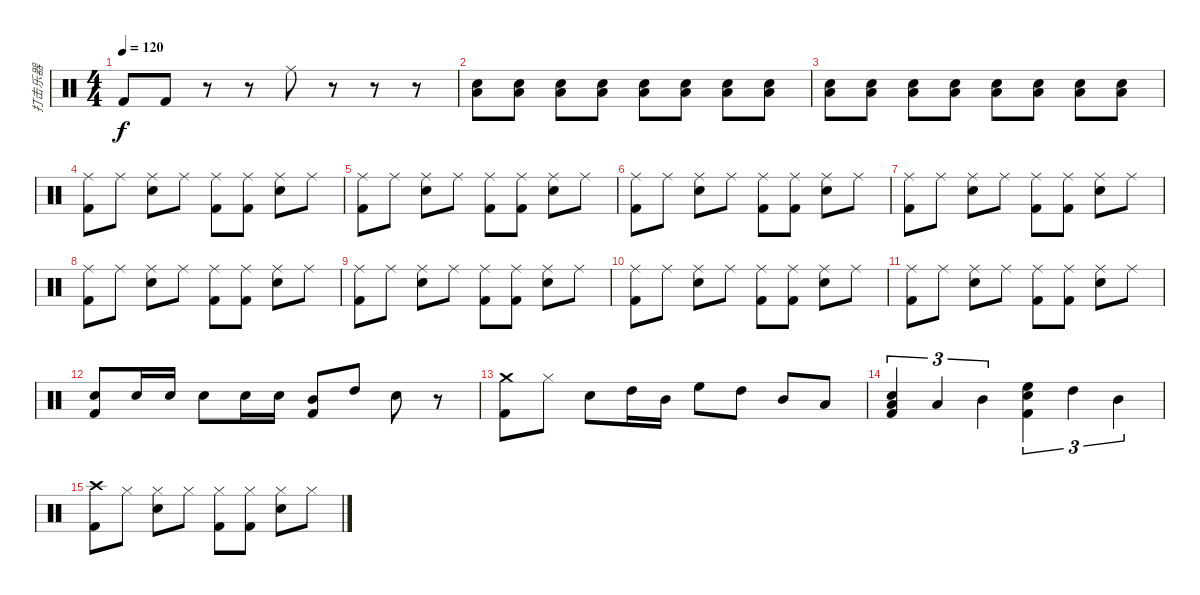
\track ("打击乐器" "打击乐器") {instrument percussion}
\staff {score}
\articulation defaults
\ts (4 4)
\tempo 120
\clef neutral
\ks c "Kick (hit) 2".8{dy f} "Kick (hit) 2".8
r.8 r.8 "Ride (middle)".8 r.8 r.8 r.8 |
("Electric Snare (hit)" "Low Floor Tom (hit)").8 ("Electric Snare (hit)" "Low Floor Tom (hit)").8 ("Electric Snare (hit)" "Low Floor Tom (hit)").8 ("Electric Snare (hit)" "Low Floor Tom (hit)").8 ("Electric Snare (hit)" "Low Floor Tom (hit)").8 ("Electric Snare (hit)" "Low Floor Tom (hit)").8 ("Electric Snare (hit)" "Low Floor Tom (hit)").8 ("Electric Snare (hit)" "Low Floor Tom (hit)").8 |
("Electric Snare (hit)" "Low Floor Tom (hit)").8 ("Electric Snare (hit)" "Low Floor Tom (hit)").8 ("Electric Snare (hit)" "Low Floor Tom (hit)").8 ("Electric Snare (hit)" "Low Floor Tom (hit)").8 ("Electric Snare (hit)" "Low Floor Tom (hit)").8 ("Electric Snare (hit)" "Low Floor Tom (hit)").8 ("Electric Snare (hit)" "Low Floor Tom (hit)").8 ("Electric Snare (hit)" "Low Floor Tom (hit)").8 |
("Ride (middle)" "Kick (hit) 2").8 "Ride (middle)".8 ("Ride (middle)" "Electric Snare (hit)").8 "Ride (middle)".8 ("Ride (middle)" "Kick (hit) 2").8 ("Ride (middle)" "Kick (hit) 2").8 ("Ride (middle)" "Electric Snare (hit)").8 "Ride (middle)".8 |
("Ride (middle)" "Kick (hit) 2").8 "Ride (middle)".8 ("Ride (middle)" "Electric Snare (hit)").8 "Ride (middle)".8 ("Ride (middle)" "Kick (hit) 2").8 ("Ride (middle)" "Kick (hit) 2").8 ("Ride (middle)" "Electric Snare (hit)").8 "Ride (middle)".8 |
("Ride (middle)" "Kick (hit) 2").8 "Ride (middle)".8 ("Ride (middle)" "Electric Snare (hit)").8 "Ride (middle)".8 ("Ride (middle)" "Kick (hit) 2").8 ("Ride (middle)" "Kick (hit) 2").8 ("Ride (middle)" "Electric Snare (hit)").8 "Ride (middle)".8 |
("Ride (middle)" "Kick (hit) 2").8 "Ride (middle)".8 ("Ride (middle)" "Electric Snare (hit)").8 "Ride (middle)".8 ("Ride (middle)" "Kick (hit) 2").8 ("Ride (middle)" "Kick (hit) 2").8 ("Ride (middle)" "Electric Snare (hit)").8 "Ride (middle)".8 |
("Ride (middle)" "Kick (hit) 2").8 "Ride (middle)".8 ("Ride (middle)" "Electric Snare (hit)").8 "Ride (middle)".8 ("Ride (middle)" "Kick (hit) 2").8 ("Ride (middle)" "Kick (hit) 2").8 ("Ride (middle)" "Electric Snare (hit)").8 "Ride (middle)".8 |
("Ride (middle)" "Kick (hit) 2").8 "Ride (middle)".8 ("Ride (middle)" "Electric Snare (hit)").8 "Ride (middle)".8 ("Ride (middle)" "Kick (hit) 2").8 ("Ride (middle)" "Kick (hit) 2").8 ("Ride (middle)" "Electric Snare (hit)").8 "Ride (middle)".8 |
("Ride (middle)" "Kick (hit) 2").8 "Ride (middle)".8 ("Ride (middle)" "Electric Snare (hit)").8 "Ride (middle)".8 ("Ride (middle)" "Kick (hit) 2").8 ("Ride (middle)" "Kick (hit) 2").8 ("Ride (middle)" "Electric Snare (hit)").8 "Ride (middle)".8 |
("Ride (middle)" "Kick (hit) 2").8 "Ride (middle)".8 ("Ride (middle)" "Electric Snare (hit)").8 "Ride (middle)".8 ("Ride (middle)" "Kick (hit) 2").8 ("Ride (middle)" "Kick (hit) 2").8 ("Ride (middle)" "Electric Snare (hit)").8 "Ride (middle)".8 |
("Electric Snare (hit)" "Kick (hit) 2").8 "Electric Snare (hit)".16 "Electric Snare (hit)".16 "Electric Snare (hit)".8 "Electric Snare (hit)".16 "Electric Snare (hit)".16 ("Mid Tom (hit)" "Kick (hit) 2").8 "High Tom (hit)".8 "Electric Snare (hit)".8 r.8 |
("Crash medium (hit)" "Kick (hit) 2").8 "Hi-Hat (closed)".8 "Electric Snare (hit)".8 "High Tom (hit)".16 "Mid Tom (hit)".16 "High Floor Tom (hit)".8 "High Tom (hit)".8 "Mid Tom (hit)".8 "Low Tom (hit)".8 |
("Low Floor Tom (hit)" "Electric Snare (hit)" "Kick (hit) 2").4{tu (3 2)} "Low Tom (hit)".4{tu (3 2)} "Mid Tom (hit)".4{tu (3 2)} ("High Floor Tom (hit)" "Electric Snare (hit)" "Kick (hit) 2").4{tu (3 2)} "High Tom (hit)".4{tu (3 2)} "Mid Tom (hit)".4{tu (3 2)} |
("Crash high (hit)" "Kick (hit) 2").8 "Hi-Hat (closed)".8 ("Hi-Hat (closed)" "Electric Snare (hit)").8 "Hi-Hat (closed)".8 ("Hi-Hat (closed)" "Kick (hit) 2").8 ("Hi-Hat (closed)" "Kick (hit) 2").8 ("Hi-Hat (closed)" "Electric Snare (hit)").8 "Hi-Hat (closed)".8
